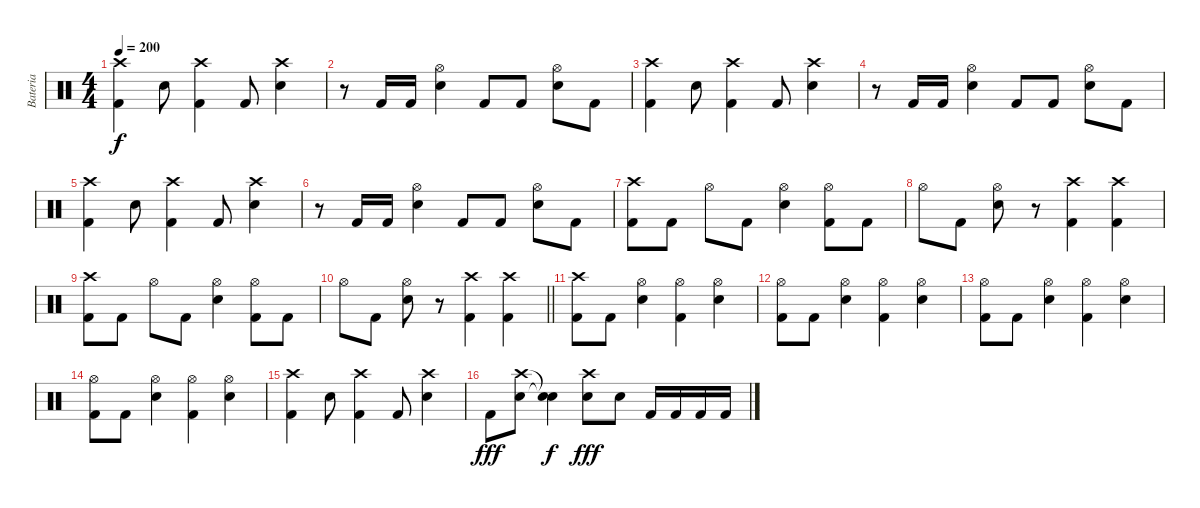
\track ("Bateria" "Bateria") {instrument percussion}
\staff {score}
\articulation defaults
\ts (4 4)
\tempo 200
\clef neutral
\ks c
("Crash high (hit)" "Kick (hit) 2").4{dy f} "Electric Snare (hit)".8 ("Crash high (hit)" "Kick (hit) 2").4 "Kick (hit) 2".8 ("Crash high (hit)" "Electric Snare (hit)").4 |
r.8 "Kick (hit) 2".16 "Kick (hit) 2".16 ("Hi-Hat (open)" "Electric Snare (hit)").4 "Kick (hit) 2".8 "Kick (hit) 2".8 ("Hi-Hat (open)" "Electric Snare (hit)").8 "Kick (hit) 2".8 |
("Crash high (hit)" "Kick (hit) 2").4 "Electric Snare (hit)".8 ("Crash high (hit)" "Kick (hit) 2").4 "Kick (hit) 2".8 ("Crash high (hit)" "Electric Snare (hit)").4 |
r.8 "Kick (hit) 2".16 "Kick (hit) 2".16 ("Hi-Hat (open)" "Electric Snare (hit)").4 "Kick (hit) 2".8 "Kick (hit) 2".8 ("Hi-Hat (open)" "Electric Snare (hit)").8 "Kick (hit) 2".8 |
("Crash high (hit)" "Kick (hit) 2").4 "Electric Snare (hit)".8 ("Crash high (hit)" "Kick (hit) 2").4 "Kick (hit) 2".8 ("Crash high (hit)" "Electric Snare (hit)").4 |
r.8 "Kick (hit) 2".16 "Kick (hit) 2".16 ("Hi-Hat (open)" "Electric Snare (hit)").4 "Kick (hit) 2".8 "Kick (hit) 2".8 ("Hi-Hat (open)" "Electric Snare (hit)").8 "Kick (hit) 2".8 |
("Crash high (hit)" "Kick (hit) 2").8 "Kick (hit) 2".8 "Hi-Hat (open)".8 "Kick (hit) 2".8 ("Hi-Hat (open)" "Electric Snare (hit)").4 ("Hi-Hat (open)" "Kick (hit) 2").8 "Kick (hit) 2".8 |
"Hi-Hat (open)".8 "Kick (hit) 2".8 ("Hi-Hat (open)" "Electric Snare (hit)").8 r.8 ("Crash high (hit)" "Kick (hit) 2").4 ("Crash high (hit)" "Kick (hit) 2").4 |
("Crash high (hit)" "Kick (hit) 2").8 "Kick (hit) 2".8 "Hi-Hat (open)".8 "Kick (hit) 2".8 ("Hi-Hat (open)" "Electric Snare (hit)").4 ("Hi-Hat (open)" "Kick (hit) 2").8 "Kick (hit) 2".8 |
\barLineRight lightlight "Hi-Hat (open)".8 "Kick (hit) 2".8
("Hi-Hat (open)" "Electric Snare (hit)").8 r.8 ("Crash high (hit)" "Kick (hit) 2").4 ("Crash high (hit)" "Kick (hit) 2").4 |
("Crash high (hit)" "Kick (hit) 2").8 "Kick (hit) 2".8 ("Hi-Hat (open)" "Electric Snare (hit)").4 ("Hi-Hat (open)" "Kick (hit) 2").4 ("Hi-Hat (open)" "Electric Snare (hit)").4 |
("Hi-Hat (open)" "Kick (hit) 2").8 "Kick (hit) 2".8 ("Hi-Hat (open)" "Electric Snare (hit)").4 ("Hi-Hat (open)" "Kick (hit) 2").4 ("Hi-Hat (open)" "Electric Snare (hit)").4 |
("Hi-Hat (open)" "Kick (hit) 2").8 "Kick (hit) 2".8 ("Hi-Hat (open)" "Electric Snare (hit)").4 ("Hi-Hat (open)" "Kick (hit) 2").4 ("Hi-Hat (open)" "Electric Snare (hit)").4 |
("Hi-Hat (open)" "Kick (hit) 2").8 "Kick (hit) 2".8 ("Hi-Hat (open)" "Electric Snare (hit)").4 ("Hi-Hat (open)" "Kick (hit) 2").4 ("Hi-Hat (open)" "Electric Snare (hit)").4 |
("Crash high (hit)" "Kick (hit) 2").4 "Electric Snare (hit)".8 ("Crash high (hit)" "Kick (hit) 2").4 "Kick (hit) 2".8 ("Crash high (hit)" "Electric Snare (hit)").4 |
"Kick (hit) 2".8{dy fff} ("Crash high (hit)" "Electric Snare (hit)").8 ("Snare (hit)"{t} "Snare (hit)"{t}).4{dy f} ("Crash high (hit)" "Electric Snare (hit)").8{dy fff} "Electric Snare (hit)".8 "Kick (hit) 2".16 "Kick (hit) 2".16 "Kick (hit) 2".16 "Kick (hit) 2".16
